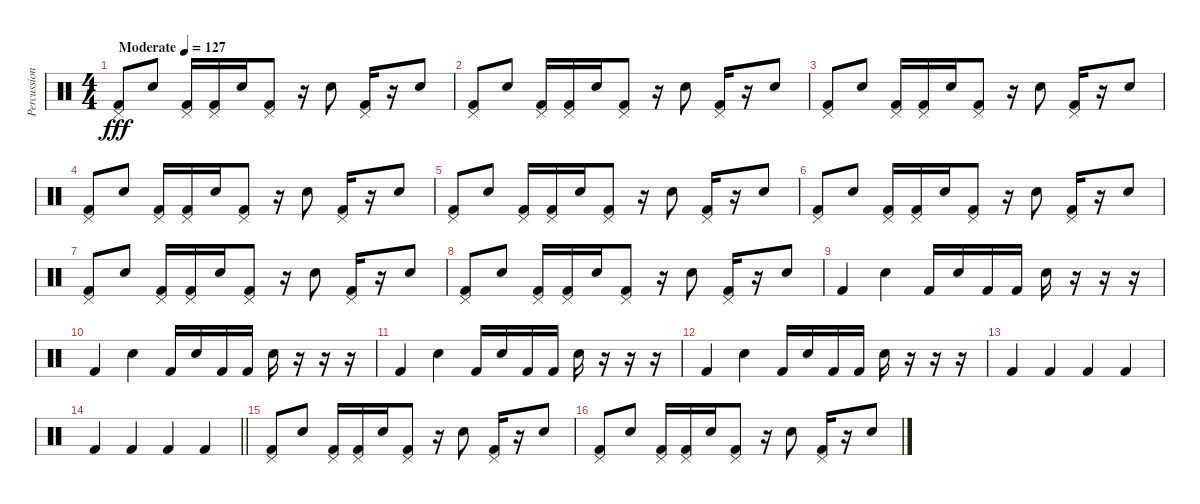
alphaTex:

\track ("Percussion" "Percussion") {instrument percussion}
\staff {score}
\articulation defaults
\ts (4 4)
\tempo (127 "Moderate")
\clef neutral
\ks c
("Pedal Hi-Hat (hit)" "Kick (hit) 2").8{dy fff} "Snare (hit) 2".8 ("Pedal Hi-Hat (hit)" "Kick (hit) 2").16 ("Pedal Hi-Hat (hit)" "Kick (hit) 2").16 "Snare (hit) 2".16 ("Pedal Hi-Hat (hit)" "Kick (hit) 2").8 r.16 "Snare (hit) 2".8 ("Pedal Hi-Hat (hit)" "Kick (hit) 2").16 r.16 "Snare (hit) 2".8 |
("Pedal Hi-Hat (hit)" "Kick (hit) 2").8 "Snare (hit) 2".8 ("Pedal Hi-Hat (hit)" "Kick (hit) 2").16 ("Pedal Hi-Hat (hit)" "Kick (hit) 2").16 "Snare (hit) 2".16 ("Pedal Hi-Hat (hit)" "Kick (hit) 2").8 r.16 "Snare (hit) 2".8 ("Pedal Hi-Hat (hit)" "Kick (hit) 2").16 r.16 "Snare (hit) 2".8 |
("Pedal Hi-Hat (hit)" "Kick (hit) 2").8 "Snare (hit) 2".8 ("Pedal Hi-Hat (hit)" "Kick (hit) 2").16 ("Pedal Hi-Hat (hit)" "Kick (hit) 2").16 "Snare (hit) 2".16 ("Pedal Hi-Hat (hit)" "Kick (hit) 2").8 r.16 "Snare (hit) 2".8 ("Pedal Hi-Hat (hit)" "Kick (hit) 2").16 r.16 "Snare (hit) 2".8 |
("Pedal Hi-Hat (hit)" "Kick (hit) 2").8 "Snare (hit) 2".8 ("Pedal Hi-Hat (hit)" "Kick (hit) 2").16 ("Pedal Hi-Hat (hit)" "Kick (hit) 2").16 "Snare (hit) 2".16 ("Pedal Hi-Hat (hit)" "Kick (hit) 2").8 r.16 "Snare (hit) 2".8 ("Pedal Hi-Hat (hit)" "Kick (hit) 2").16 r.16 "Snare (hit) 2".8 |
("Pedal Hi-Hat (hit)" "Kick (hit) 2").8 "Snare (hit) 2".8 ("Pedal Hi-Hat (hit)" "Kick (hit) 2").16 ("Pedal Hi-Hat (hit)" "Kick (hit) 2").16 "Snare (hit) 2".16 ("Pedal Hi-Hat (hit)" "Kick (hit) 2").8 r.16 "Snare (hit) 2".8 ("Pedal Hi-Hat (hit)" "Kick (hit) 2").16 r.16 "Snare (hit) 2".8 |
("Pedal Hi-Hat (hit)" "Kick (hit) 2").8 "Snare (hit) 2".8 ("Pedal Hi-Hat (hit)" "Kick (hit) 2").16 ("Pedal Hi-Hat (hit)" "Kick (hit) 2").16 "Snare (hit) 2".16 ("Pedal Hi-Hat (hit)" "Kick (hit) 2").8 r.16 "Snare (hit) 2".8 ("Pedal Hi-Hat (hit)" "Kick (hit) 2").16 r.16 "Snare (hit) 2".8 |
("Pedal Hi-Hat (hit)" "Kick (hit) 2").8 "Snare (hit) 2".8 ("Pedal Hi-Hat (hit)" "Kick (hit) 2").16 ("Pedal Hi-Hat (hit)" "Kick (hit) 2").16 "Snare (hit) 2".16 ("Pedal Hi-Hat (hit)" "Kick (hit) 2").8 r.16 "Snare (hit) 2".8 ("Pedal Hi-Hat (hit)" "Kick (hit) 2").16 r.16 "Snare (hit) 2".8 |
("Pedal Hi-Hat (hit)" "Kick (hit) 2").8 "Snare (hit) 2".8 ("Pedal Hi-Hat (hit)" "Kick (hit) 2").16 ("Pedal Hi-Hat (hit)" "Kick (hit) 2").16 "Snare (hit) 2".16 ("Pedal Hi-Hat (hit)" "Kick (hit) 2").8 r.16 "Snare (hit) 2".8 ("Pedal Hi-Hat (hit)" "Kick (hit) 2").16 r.16 "Snare (hit) 2".8 |
"Kick (hit) 2".4 "Snare (hit) 2".4 "Kick (hit) 2".16 "Snare (hit) 2".16 "Kick (hit) 2".16 "Kick (hit) 2".16 "Snare (hit) 2".16 r.16 r.16 r.16 |
"Kick (hit) 2".4 "Snare (hit) 2".4 "Kick (hit) 2".16 "Snare (hit) 2".16 "Kick (hit) 2".16 "Kick (hit) 2".16 "Snare (hit) 2".16 r.16 r.16 r.16 |
"Kick (hit) 2".4 "Snare (hit) 2".4 "Kick (hit) 2".16 "Snare (hit) 2".16 "Kick (hit) 2".16 "Kick (hit) 2".16 "Snare (hit) 2".16 r.16 r.16 r.16 |
"Kick (hit) 2".4 "Snare (hit) 2".4 "Kick (hit) 2".16 "Snare (hit) 2".16 "Kick (hit) 2".16 "Kick (hit) 2".16 "Snare (hit) 2".16 r.16 r.16 r.16 |
"Kick (hit) 2".4 "Kick (hit) 2".4 "Kick (hit) 2".4 "Kick (hit) 2".4 |
\barLineRight lightlight "Kick (hit) 2".4 "Kick (hit) 2".4 "Kick (hit) 2".4 "Kick (hit) 2".4
|
("Pedal Hi-Hat (hit)" "Kick (hit) 2").8 "Snare (hit) 2".8 ("Pedal Hi-Hat (hit)" "Kick (hit) 2").16 ("Pedal Hi-Hat (hit)" "Kick (hit) 2").16 "Snare (hit) 2".16 ("Pedal Hi-Hat (hit)" "Kick (hit) 2").8 r.16 "Snare (hit) 2".8 ("Pedal Hi-Hat (hit)" "Kick (hit) 2").16 r.16 "Snare (hit) 2".8 |
("Pedal Hi-Hat (hit)" "Kick (hit) 2").8 "Snare (hit) 2".8 ("Pedal Hi-Hat (hit)" "Kick (hit) 2").16 ("Pedal Hi-Hat (hit)" "Kick (hit) 2").16 "Snare (hit) 2".16 ("Pedal Hi-Hat (hit)" "Kick (hit) 2").8 r.16 "Snare (hit) 2".8 ("Pedal Hi-Hat (hit)" "Kick (hit) 2").16 r.16 "Snare (hit) 2".8
